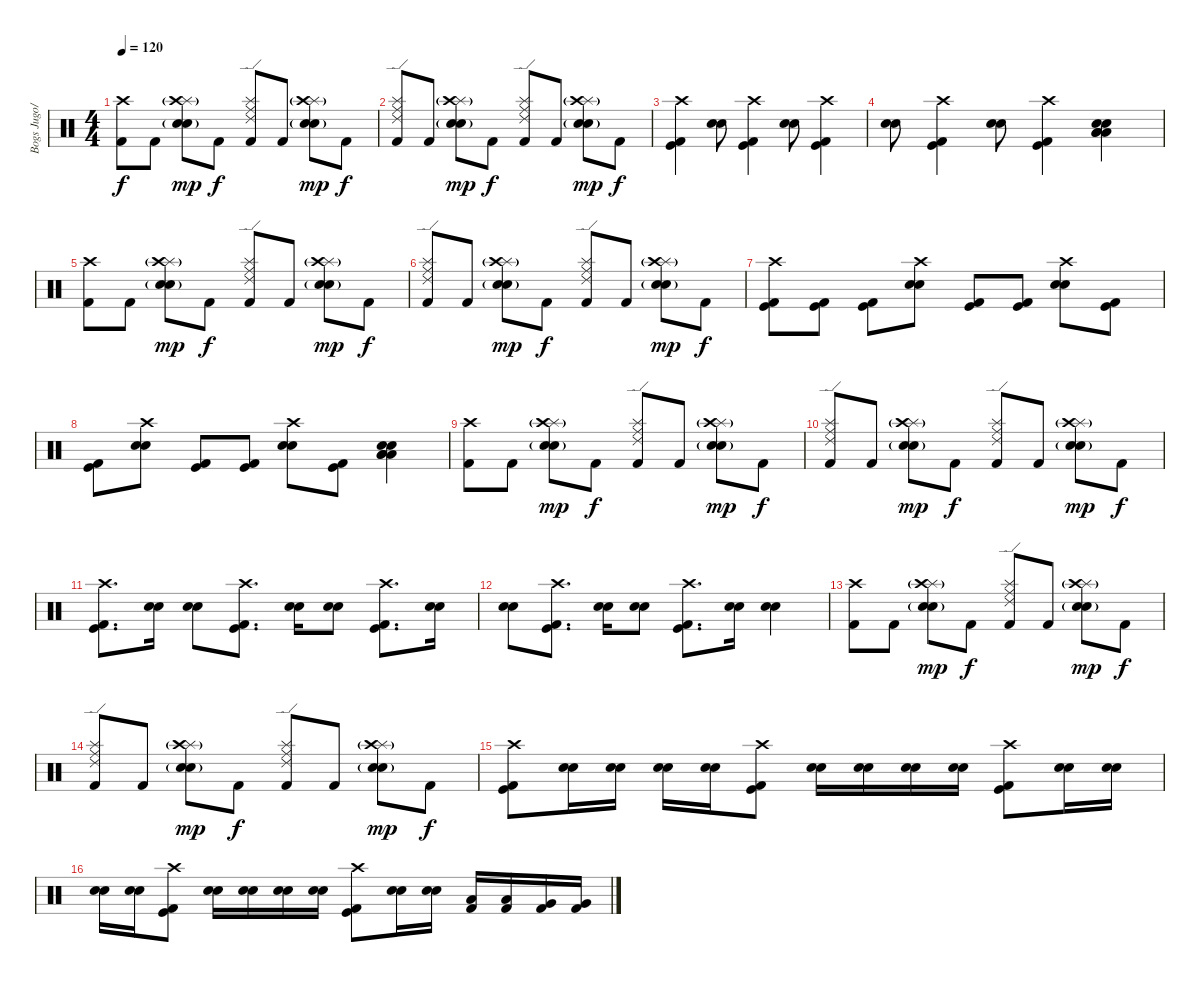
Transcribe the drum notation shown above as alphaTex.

\track ("Bogs Jugo/Drums" "Bogs Jugo/") {instrument percussion}
\staff {score}
\articulation defaults
\ts (4 4)
\tempo 120
\clef neutral
\ks c
("Crash high (hit)" "Kick (hit) 2").8{dy f} "Kick (hit) 2".8 ("Splash (hit)" "Crash high (hit)"{g} "Electric Snare (hit)" "Snare (hit) 2"{g}).8{dy mp} "Kick (hit) 2".8{dy f} ("Splash (hit)" "Kick (hit) 2" "Ride (middle)" "Ride (edge) 2").8 "Kick (hit) 2".8 ("Splash (hit)" "Crash high (hit)"{g} "Electric Snare (hit)" "Snare (hit) 2"{g}).8{dy mp} "Kick (hit) 2".8{dy f} |
("Splash (hit)" "Kick (hit) 2" "Ride (middle)" "Ride (edge) 2").8 "Kick (hit) 2".8 ("Splash (hit)" "Crash high (hit)"{g} "Electric Snare (hit)" "Snare (hit) 2"{g}).8{dy mp} "Kick (hit) 2".8{dy f} ("Splash (hit)" "Kick (hit) 2" "Ride (middle)" "Ride (edge) 2").8 "Kick (hit) 2".8 ("Splash (hit)" "Crash high (hit)"{g} "Electric Snare (hit)" "Snare (hit) 2"{g}).8{dy mp} "Kick (hit) 2".8{dy f} |
("Crash high (hit)" "Kick (hit) 2" "Kick (hit)").4 ("Electric Snare (hit)" "Snare (hit) 2").8 ("Crash high (hit)" "Kick (hit) 2" "Kick (hit)").4 ("Electric Snare (hit)" "Snare (hit) 2").8 ("Crash high (hit)" "Kick (hit) 2" "Kick (hit)").4 |
("Electric Snare (hit)" "Snare (hit) 2").8 ("Crash high (hit)" "Kick (hit) 2" "Kick (hit)").4 ("Electric Snare (hit)" "Snare (hit) 2").8 ("Crash high (hit)" "Kick (hit) 2" "Kick (hit)").4 ("Electric Snare (hit)" "Snare (hit) 2" "Low Tom (hit)" "Low Tom (hit)" "Low Tom (hit)").4 |
("Crash high (hit)" "Kick (hit) 2").8 "Kick (hit) 2".8 ("Splash (hit)" "Crash high (hit)"{g} "Electric Snare (hit)" "Snare (hit) 2"{g}).8{dy mp} "Kick (hit) 2".8{dy f} ("Splash (hit)" "Kick (hit) 2" "Ride (middle)" "Ride (edge) 2").8 "Kick (hit) 2".8 ("Splash (hit)" "Crash high (hit)"{g} "Electric Snare (hit)" "Snare (hit) 2"{g}).8{dy mp} "Kick (hit) 2".8{dy f} |
("Splash (hit)" "Kick (hit) 2" "Ride (middle)" "Ride (edge) 2").8 "Kick (hit) 2".8 ("Splash (hit)" "Crash high (hit)"{g} "Electric Snare (hit)" "Snare (hit) 2"{g}).8{dy mp} "Kick (hit) 2".8{dy f} ("Splash (hit)" "Kick (hit) 2" "Ride (middle)" "Ride (edge) 2").8 "Kick (hit) 2".8 ("Splash (hit)" "Crash high (hit)"{g} "Electric Snare (hit)" "Snare (hit) 2"{g}).8{dy mp} "Kick (hit) 2".8{dy f} |
("Crash high (hit)" "Kick (hit) 2" "Kick (hit)").8 ("Kick (hit) 2" "Kick (hit)").8 ("Kick (hit) 2" "Kick (hit)").8 ("Crash high (hit)" "Electric Snare (hit)" "Snare (hit) 2").8 ("Kick (hit) 2" "Kick (hit)").8 ("Kick (hit) 2" "Kick (hit)").8 ("Crash high (hit)" "Electric Snare (hit)" "Snare (hit) 2").8 ("Kick (hit) 2" "Kick (hit)").8 |
("Kick (hit) 2" "Kick (hit)").8 ("Crash high (hit)" "Electric Snare (hit)" "Snare (hit) 2").8 ("Kick (hit) 2" "Kick (hit)").8 ("Kick (hit) 2" "Kick (hit)").8 ("Crash high (hit)" "Electric Snare (hit)" "Snare (hit) 2").8 ("Kick (hit) 2" "Kick (hit)").8 ("Electric Snare (hit)" "Snare (hit) 2" "Low Tom (hit)" "Low Tom (hit)" "Low Tom (hit)").4 |
("Crash high (hit)" "Kick (hit) 2").8 "Kick (hit) 2".8 ("Splash (hit)" "Crash high (hit)"{g} "Electric Snare (hit)" "Snare (hit) 2"{g}).8{dy mp} "Kick (hit) 2".8{dy f} ("Splash (hit)" "Kick (hit) 2" "Ride (middle)" "Ride (edge) 2").8 "Kick (hit) 2".8 ("Splash (hit)" "Crash high (hit)"{g} "Electric Snare (hit)" "Snare (hit) 2"{g}).8{dy mp} "Kick (hit) 2".8{dy f} |
("Splash (hit)" "Kick (hit) 2" "Ride (middle)" "Ride (edge) 2").8 "Kick (hit) 2".8 ("Splash (hit)" "Crash high (hit)"{g} "Electric Snare (hit)" "Snare (hit) 2"{g}).8{dy mp} "Kick (hit) 2".8{dy f} ("Splash (hit)" "Kick (hit) 2" "Ride (middle)" "Ride (edge) 2").8 "Kick (hit) 2".8 ("Splash (hit)" "Crash high (hit)"{g} "Electric Snare (hit)" "Snare (hit) 2"{g}).8{dy mp} "Kick (hit) 2".8{dy f} |
("Crash high (hit)" "Kick (hit) 2" "Kick (hit)").8{d} ("Electric Snare (hit)" "Snare (hit) 2").16 ("Electric Snare (hit)" "Snare (hit) 2").8 ("Crash high (hit)" "Kick (hit) 2" "Kick (hit)").8{d} ("Electric Snare (hit)" "Snare (hit) 2").16 ("Electric Snare (hit)" "Snare (hit) 2").8 ("Crash high (hit)" "Kick (hit) 2" "Kick (hit)").8{d} ("Electric Snare (hit)" "Snare (hit) 2").16 |
("Electric Snare (hit)" "Snare (hit) 2").8 ("Crash high (hit)" "Kick (hit) 2" "Kick (hit)").8{d} ("Electric Snare (hit)" "Snare (hit) 2").16 ("Electric Snare (hit)" "Snare (hit) 2").8 ("Crash high (hit)" "Kick (hit) 2" "Kick (hit)").8{d} ("Electric Snare (hit)" "Snare (hit) 2").16 ("Electric Snare (hit)" "Snare (hit) 2").4 |
("Crash high (hit)" "Kick (hit) 2").8 "Kick (hit) 2".8 ("Splash (hit)" "Crash high (hit)"{g} "Electric Snare (hit)" "Snare (hit) 2"{g}).8{dy mp} "Kick (hit) 2".8{dy f} ("Splash (hit)" "Kick (hit) 2" "Ride (middle)" "Ride (edge) 2").8 "Kick (hit) 2".8 ("Splash (hit)" "Crash high (hit)"{g} "Electric Snare (hit)" "Snare (hit) 2"{g}).8{dy mp} "Kick (hit) 2".8{dy f} |
("Splash (hit)" "Kick (hit) 2" "Ride (middle)" "Ride (edge) 2").8 "Kick (hit) 2".8 ("Splash (hit)" "Crash high (hit)"{g} "Electric Snare (hit)" "Snare (hit) 2"{g}).8{dy mp} "Kick (hit) 2".8{dy f} ("Splash (hit)" "Kick (hit) 2" "Ride (middle)" "Ride (edge) 2").8 "Kick (hit) 2".8 ("Splash (hit)" "Crash high (hit)"{g} "Electric Snare (hit)" "Snare (hit) 2"{g}).8{dy mp} "Kick (hit) 2".8{dy f} |
("Crash high (hit)" "Kick (hit) 2" "Kick (hit)").8 ("Electric Snare (hit)" "Snare (hit) 2").16 ("Electric Snare (hit)" "Snare (hit) 2").16 ("Electric Snare (hit)" "Snare (hit) 2").16 ("Electric Snare (hit)" "Snare (hit) 2").16 ("Crash high (hit)" "Kick (hit) 2" "Kick (hit)").8 ("Electric Snare (hit)" "Snare (hit) 2").16 ("Electric Snare (hit)" "Snare (hit) 2").16 ("Electric Snare (hit)" "Snare (hit) 2").16 ("Electric Snare (hit)" "Snare (hit) 2").16 ("Crash high (hit)" "Kick (hit) 2" "Kick (hit)").8 ("Electric Snare (hit)" "Snare (hit) 2").16 ("Electric Snare (hit)" "Snare (hit) 2").16 |
("Electric Snare (hit)" "Snare (hit) 2").16 ("Electric Snare (hit)" "Snare (hit) 2").16 ("Crash high (hit)" "Kick (hit) 2" "Kick (hit)").8 ("Electric Snare (hit)" "Snare (hit) 2").16 ("Electric Snare (hit)" "Snare (hit) 2").16 ("Electric Snare (hit)" "Snare (hit) 2").16 ("Electric Snare (hit)" "Snare (hit) 2").16 ("Crash high (hit)" "Kick (hit) 2" "Kick (hit)").8 ("Electric Snare (hit)" "Snare (hit) 2").16 ("Electric Snare (hit)" "Snare (hit) 2").16 ("Low Tom (hit)" "Kick (hit) 2").16 ("Low Tom (hit)" "Kick (hit) 2").16 ("Very Low Tom (hit)" "Kick (hit) 2").16 ("Very Low Tom (hit)" "Kick (hit) 2").16
